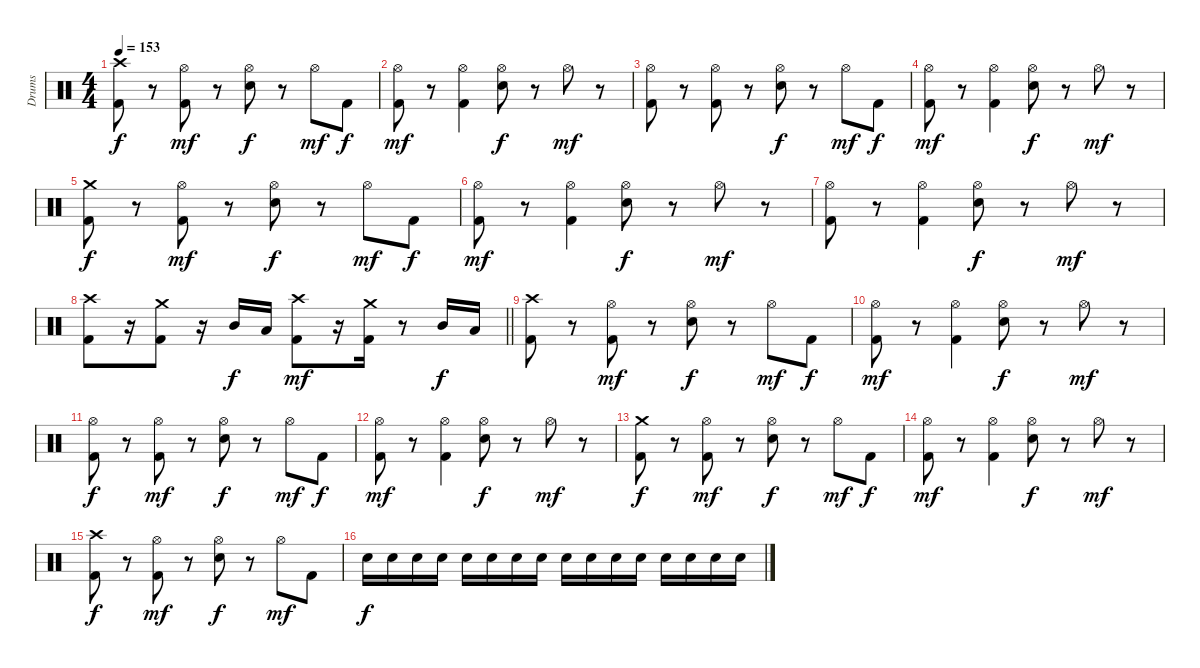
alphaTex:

\track ("Drums" "Drums") {instrument percussion}
\staff {score}
\articulation defaults
\ts (4 4)
\tempo 153
\clef neutral
\ks c
("Crash high (hit)" "Kick (hit) 2").8{dy f} r.8 ("Hi-Hat (open)" "Kick (hit) 2").8{dy mf} r.8 ("Hi-Hat (open)" "Electric Snare (hit)").8{dy f} r.8 "Hi-Hat (open)".8{dy mf} "Kick (hit) 2".8{dy f} |
("Hi-Hat (open)" "Kick (hit) 2").8{dy mf} r.8 ("Hi-Hat (open)" "Kick (hit) 2").4 ("Hi-Hat (open)" "Electric Snare (hit)").8{dy f} r.8 "Hi-Hat (open)".8{dy mf} r.8 |
("Hi-Hat (open)" "Kick (hit) 2").8 r.8 ("Hi-Hat (open)" "Kick (hit) 2").8 r.8 ("Hi-Hat (open)" "Electric Snare (hit)").8{dy f} r.8 "Hi-Hat (open)".8{dy mf} "Kick (hit) 2".8{dy f} |
("Hi-Hat (open)" "Kick (hit) 2").8{dy mf} r.8 ("Hi-Hat (open)" "Kick (hit) 2").4 ("Hi-Hat (open)" "Electric Snare (hit)").8{dy f} r.8 "Hi-Hat (open)".8{dy mf} r.8 |
("Crash medium (hit)" "Kick (hit) 2").8{dy f} r.8 ("Hi-Hat (open)" "Kick (hit) 2").8{dy mf} r.8 ("Hi-Hat (open)" "Electric Snare (hit)").8{dy f} r.8 "Hi-Hat (open)".8{dy mf} "Kick (hit) 2".8{dy f} |
("Hi-Hat (open)" "Kick (hit) 2").8{dy mf} r.8 ("Hi-Hat (open)" "Kick (hit) 2").4 ("Hi-Hat (open)" "Electric Snare (hit)").8{dy f} r.8 "Hi-Hat (open)".8{dy mf} r.8 |
("Hi-Hat (open)" "Kick (hit) 2").8 r.8 ("Hi-Hat (open)" "Kick (hit) 2").4 ("Hi-Hat (open)" "Electric Snare (hit)").8{dy f} r.8 "Hi-Hat (open)".8{dy mf} r.8 |
\barLineRight lightlight
("Crash high (hit)" "Kick (hit) 2").8 r.16 ("Crash medium (hit)" "Kick (hit) 2").8 r.16 "Mid Tom (hit)".16{dy f} "Low Tom (hit)".16 ("Crash high (hit)" "Kick (hit) 2").8{dy mf} r.16 ("Crash medium (hit)" "Kick (hit) 2").16 r.8 "Mid Tom (hit)".16{dy f} "Low Tom (hit)".16 |
("Crash high (hit)" "Kick (hit) 2").8 r.8 ("Hi-Hat (open)" "Kick (hit) 2").8{dy mf} r.8 ("Hi-Hat (open)" "Electric Snare (hit)").8{dy f} r.8 "Hi-Hat (open)".8{dy mf} "Kick (hit) 2".8{dy f} |
("Hi-Hat (open)" "Kick (hit) 2").8{dy mf} r.8 ("Hi-Hat (open)" "Kick (hit) 2").4 ("Hi-Hat (open)" "Electric Snare (hit)").8{dy f} r.8 "Hi-Hat (open)".8{dy mf} r.8 |
("Hi-Hat (open)" "Kick (hit) 2").8{dy f} r.8 ("Hi-Hat (open)" "Kick (hit) 2").8{dy mf} r.8 ("Hi-Hat (open)" "Electric Snare (hit)").8{dy f} r.8 "Hi-Hat (open)".8{dy mf} "Kick (hit) 2".8{dy f} |
("Hi-Hat (open)" "Kick (hit) 2").8{dy mf} r.8 ("Hi-Hat (open)" "Kick (hit) 2").4 ("Hi-Hat (open)" "Electric Snare (hit)").8{dy f} r.8 "Hi-Hat (open)".8{dy mf} r.8 |
("Crash medium (hit)" "Kick (hit) 2").8{dy f} r.8 ("Hi-Hat (open)" "Kick (hit) 2").8{dy mf} r.8 ("Hi-Hat (open)" "Electric Snare (hit)").8{dy f} r.8 "Hi-Hat (open)".8{dy mf} "Kick (hit) 2".8{dy f} |
("Hi-Hat (open)" "Kick (hit) 2").8{dy mf} r.8 ("Hi-Hat (open)" "Kick (hit) 2").4 ("Hi-Hat (open)" "Electric Snare (hit)").8{dy f} r.8 "Hi-Hat (open)".8{dy mf} r.8 |
("Crash high (hit)" "Kick (hit) 2").8{dy f} r.8 ("Hi-Hat (open)" "Kick (hit) 2").8{dy mf} r.8 ("Hi-Hat (open)" "Electric Snare (hit)").8{dy f} r.8 "Hi-Hat (open)".8{dy mf} "Kick (hit) 2".8 |
"Electric Snare (hit)".16{dy f} "Electric Snare (hit)".16 "Electric Snare (hit)".16 "Electric Snare (hit)".16 "Electric Snare (hit)".16 "Electric Snare (hit)".16 "Electric Snare (hit)".16 "Electric Snare (hit)".16 "Electric Snare (hit)".16 "Electric Snare (hit)".16 "Electric Snare (hit)".16 "Electric Snare (hit)".16 "Electric Snare (hit)".16 "Electric Snare (hit)".16 "Electric Snare (hit)".16 "Electric Snare (hit)".16
